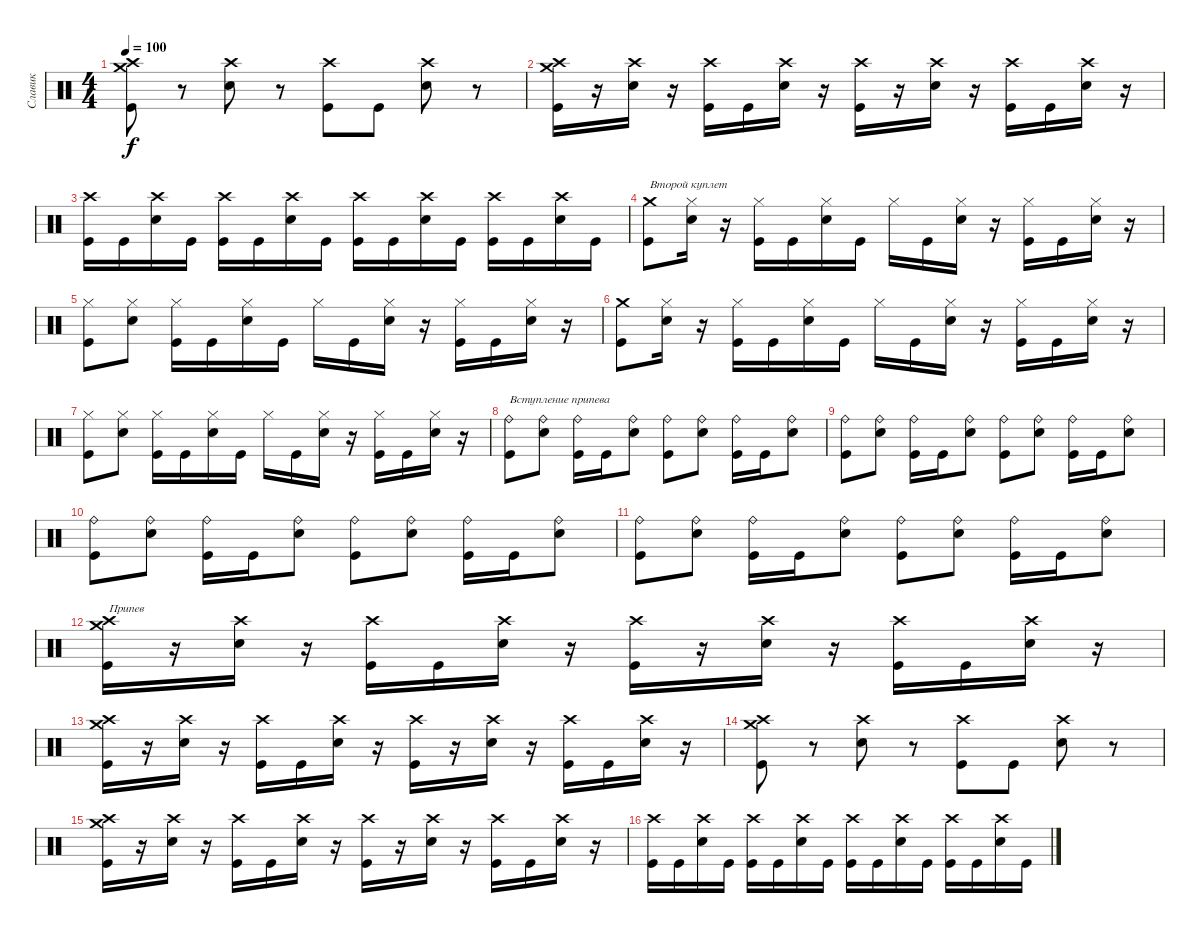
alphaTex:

\track ("Славик" "Славик") {instrument percussion}
\staff {score}
\articulation defaults
\ts (4 4)
\tempo 100
\clef neutral
\ks c
("Kick (hit)" "Crash high (hit)" "Crash medium (hit)").8{dy f} r.8 ("Electric Snare (hit)" "Crash high (hit)").8 r.8 ("Kick (hit)" "Crash high (hit)").8 "Kick (hit)".8 ("Electric Snare (hit)" "Crash high (hit)").8 r.8 |
("Kick (hit)" "Crash high (hit)" "Crash medium (hit)").16 r.16 ("Electric Snare (hit)" "Crash high (hit)").16 r.16 ("Kick (hit)" "Crash high (hit)").16 "Kick (hit)".16 ("Electric Snare (hit)" "Crash high (hit)").16 r.16 ("Kick (hit)" "Crash high (hit)").16 r.16 ("Electric Snare (hit)" "Crash high (hit)").16 r.16 ("Kick (hit)" "Crash high (hit)").16 "Kick (hit)".16 ("Electric Snare (hit)" "Crash high (hit)").16 r.16 |
("Kick (hit)" "Crash high (hit)").16 "Kick (hit)".16 ("Electric Snare (hit)" "Crash high (hit)").16 "Kick (hit)".16 ("Kick (hit)" "Crash high (hit)").16 "Kick (hit)".16 ("Electric Snare (hit)" "Crash high (hit)").16 "Kick (hit)".16 ("Kick (hit)" "Crash high (hit)").16 "Kick (hit)".16 ("Electric Snare (hit)" "Crash high (hit)").16 "Kick (hit)".16 ("Kick (hit)" "Crash high (hit)").16 "Kick (hit)".16 ("Electric Snare (hit)" "Crash high (hit)").16 "Kick (hit)".16 |
("Crash medium (hit)" "Kick (hit)").8{txt "Второй куплет"} ("Electric Snare (hit)" "Hi-Hat (closed)").16 r.16 ("Hi-Hat (closed)" "Kick (hit)").16 "Kick (hit)".16 ("Hi-Hat (closed)" "Electric Snare (hit)").16 "Kick (hit)".16 "Hi-Hat (closed)".16 "Kick (hit)".16 ("Hi-Hat (closed)" "Electric Snare (hit)").16 r.16 ("Hi-Hat (closed)" "Kick (hit)").16 "Kick (hit)".16 ("Hi-Hat (closed)" "Electric Snare (hit)").16 r.16 |
("Hi-Hat (closed)" "Kick (hit)").8 ("Electric Snare (hit)" "Hi-Hat (closed)").8 ("Hi-Hat (closed)" "Kick (hit)").16 "Kick (hit)".16 ("Hi-Hat (closed)" "Electric Snare (hit)").16 "Kick (hit)".16 "Hi-Hat (closed)".16 "Kick (hit)".16 ("Hi-Hat (closed)" "Electric Snare (hit)").16 r.16 ("Hi-Hat (closed)" "Kick (hit)").16 "Kick (hit)".16 ("Hi-Hat (closed)" "Electric Snare (hit)").16 r.16 |
("Crash medium (hit)" "Kick (hit)").8 ("Electric Snare (hit)" "Hi-Hat (closed)").16 r.16 ("Hi-Hat (closed)" "Kick (hit)").16 "Kick (hit)".16 ("Hi-Hat (closed)" "Electric Snare (hit)").16 "Kick (hit)".16 "Hi-Hat (closed)".16 "Kick (hit)".16 ("Hi-Hat (closed)" "Electric Snare (hit)").16 r.16 ("Hi-Hat (closed)" "Kick (hit)").16 "Kick (hit)".16 ("Hi-Hat (closed)" "Electric Snare (hit)").16 r.16 |
("Hi-Hat (closed)" "Kick (hit)").8 ("Electric Snare (hit)" "Hi-Hat (closed)").8 ("Hi-Hat (closed)" "Kick (hit)").16 "Kick (hit)".16 ("Hi-Hat (closed)" "Electric Snare (hit)").16 "Kick (hit)".16 "Hi-Hat (closed)".16 "Kick (hit)".16 ("Hi-Hat (closed)" "Electric Snare (hit)").16 r.16 ("Hi-Hat (closed)" "Kick (hit)").16 "Kick (hit)".16 ("Hi-Hat (closed)" "Electric Snare (hit)").16 r.16 |
("Kick (hit)" "Ride (bell)").8{txt "Вступление припева"} ("Electric Snare (hit)" "Ride (bell)").8 ("Kick (hit)" "Ride (bell)").16 "Kick (hit)".16 ("Electric Snare (hit)" "Ride (bell)").8 ("Kick (hit)" "Ride (bell)").8 ("Electric Snare (hit)" "Ride (bell)").8 ("Kick (hit)" "Ride (bell)").16 "Kick (hit)".16 ("Electric Snare (hit)" "Ride (bell)").8 |
("Kick (hit)" "Ride (bell)").8 ("Electric Snare (hit)" "Ride (bell)").8 ("Kick (hit)" "Ride (bell)").16 "Kick (hit)".16 ("Electric Snare (hit)" "Ride (bell)").8 ("Kick (hit)" "Ride (bell)").8 ("Electric Snare (hit)" "Ride (bell)").8 ("Kick (hit)" "Ride (bell)").16 "Kick (hit)".16 ("Electric Snare (hit)" "Ride (bell)").8 |
("Kick (hit)" "Ride (bell)").8 ("Electric Snare (hit)" "Ride (bell)").8 ("Kick (hit)" "Ride (bell)").16 "Kick (hit)".16 ("Electric Snare (hit)" "Ride (bell)").8 ("Kick (hit)" "Ride (bell)").8 ("Electric Snare (hit)" "Ride (bell)").8 ("Kick (hit)" "Ride (bell)").16 "Kick (hit)".16 ("Electric Snare (hit)" "Ride (bell)").8 |
("Kick (hit)" "Ride (bell)").8 ("Electric Snare (hit)" "Ride (bell)").8 ("Kick (hit)" "Ride (bell)").16 "Kick (hit)".16 ("Electric Snare (hit)" "Ride (bell)").8 ("Kick (hit)" "Ride (bell)").8 ("Electric Snare (hit)" "Ride (bell)").8 ("Kick (hit)" "Ride (bell)").16 "Kick (hit)".16 ("Electric Snare (hit)" "Ride (bell)").8 |
("Kick (hit)" "Crash high (hit)" "Crash medium (hit)").16{txt "Припев"} r.16 ("Electric Snare (hit)" "Crash high (hit)").16 r.16 ("Kick (hit)" "Crash high (hit)").16 "Kick (hit)".16 ("Electric Snare (hit)" "Crash high (hit)").16 r.16 ("Kick (hit)" "Crash high (hit)").16 r.16 ("Electric Snare (hit)" "Crash high (hit)").16 r.16 ("Kick (hit)" "Crash high (hit)").16 "Kick (hit)".16 ("Electric Snare (hit)" "Crash high (hit)").16 r.16 |
("Kick (hit)" "Crash high (hit)" "Crash medium (hit)").16 r.16 ("Electric Snare (hit)" "Crash high (hit)").16 r.16 ("Kick (hit)" "Crash high (hit)").16 "Kick (hit)".16 ("Electric Snare (hit)" "Crash high (hit)").16 r.16 ("Kick (hit)" "Crash high (hit)").16 r.16 ("Electric Snare (hit)" "Crash high (hit)").16 r.16 ("Kick (hit)" "Crash high (hit)").16 "Kick (hit)".16 ("Electric Snare (hit)" "Crash high (hit)").16 r.16 |
("Kick (hit)" "Crash high (hit)" "Crash medium (hit)").8 r.8 ("Electric Snare (hit)" "Crash high (hit)").8 r.8 ("Kick (hit)" "Crash high (hit)").8 "Kick (hit)".8 ("Electric Snare (hit)" "Crash high (hit)").8 r.8 |
("Kick (hit)" "Crash high (hit)" "Crash medium (hit)").16 r.16 ("Electric Snare (hit)" "Crash high (hit)").16 r.16 ("Kick (hit)" "Crash high (hit)").16 "Kick (hit)".16 ("Electric Snare (hit)" "Crash high (hit)").16 r.16 ("Kick (hit)" "Crash high (hit)").16 r.16 ("Electric Snare (hit)" "Crash high (hit)").16 r.16 ("Kick (hit)" "Crash high (hit)").16 "Kick (hit)".16 ("Electric Snare (hit)" "Crash high (hit)").16 r.16 |
("Kick (hit)" "Crash high (hit)").16 "Kick (hit)".16 ("Electric Snare (hit)" "Crash high (hit)").16 "Kick (hit)".16 ("Kick (hit)" "Crash high (hit)").16 "Kick (hit)".16 ("Electric Snare (hit)" "Crash high (hit)").16 "Kick (hit)".16 ("Kick (hit)" "Crash high (hit)").16 "Kick (hit)".16 ("Electric Snare (hit)" "Crash high (hit)").16 "Kick (hit)".16 ("Kick (hit)" "Crash high (hit)").16 "Kick (hit)".16 ("Electric Snare (hit)" "Crash high (hit)").16 "Kick (hit)".16
